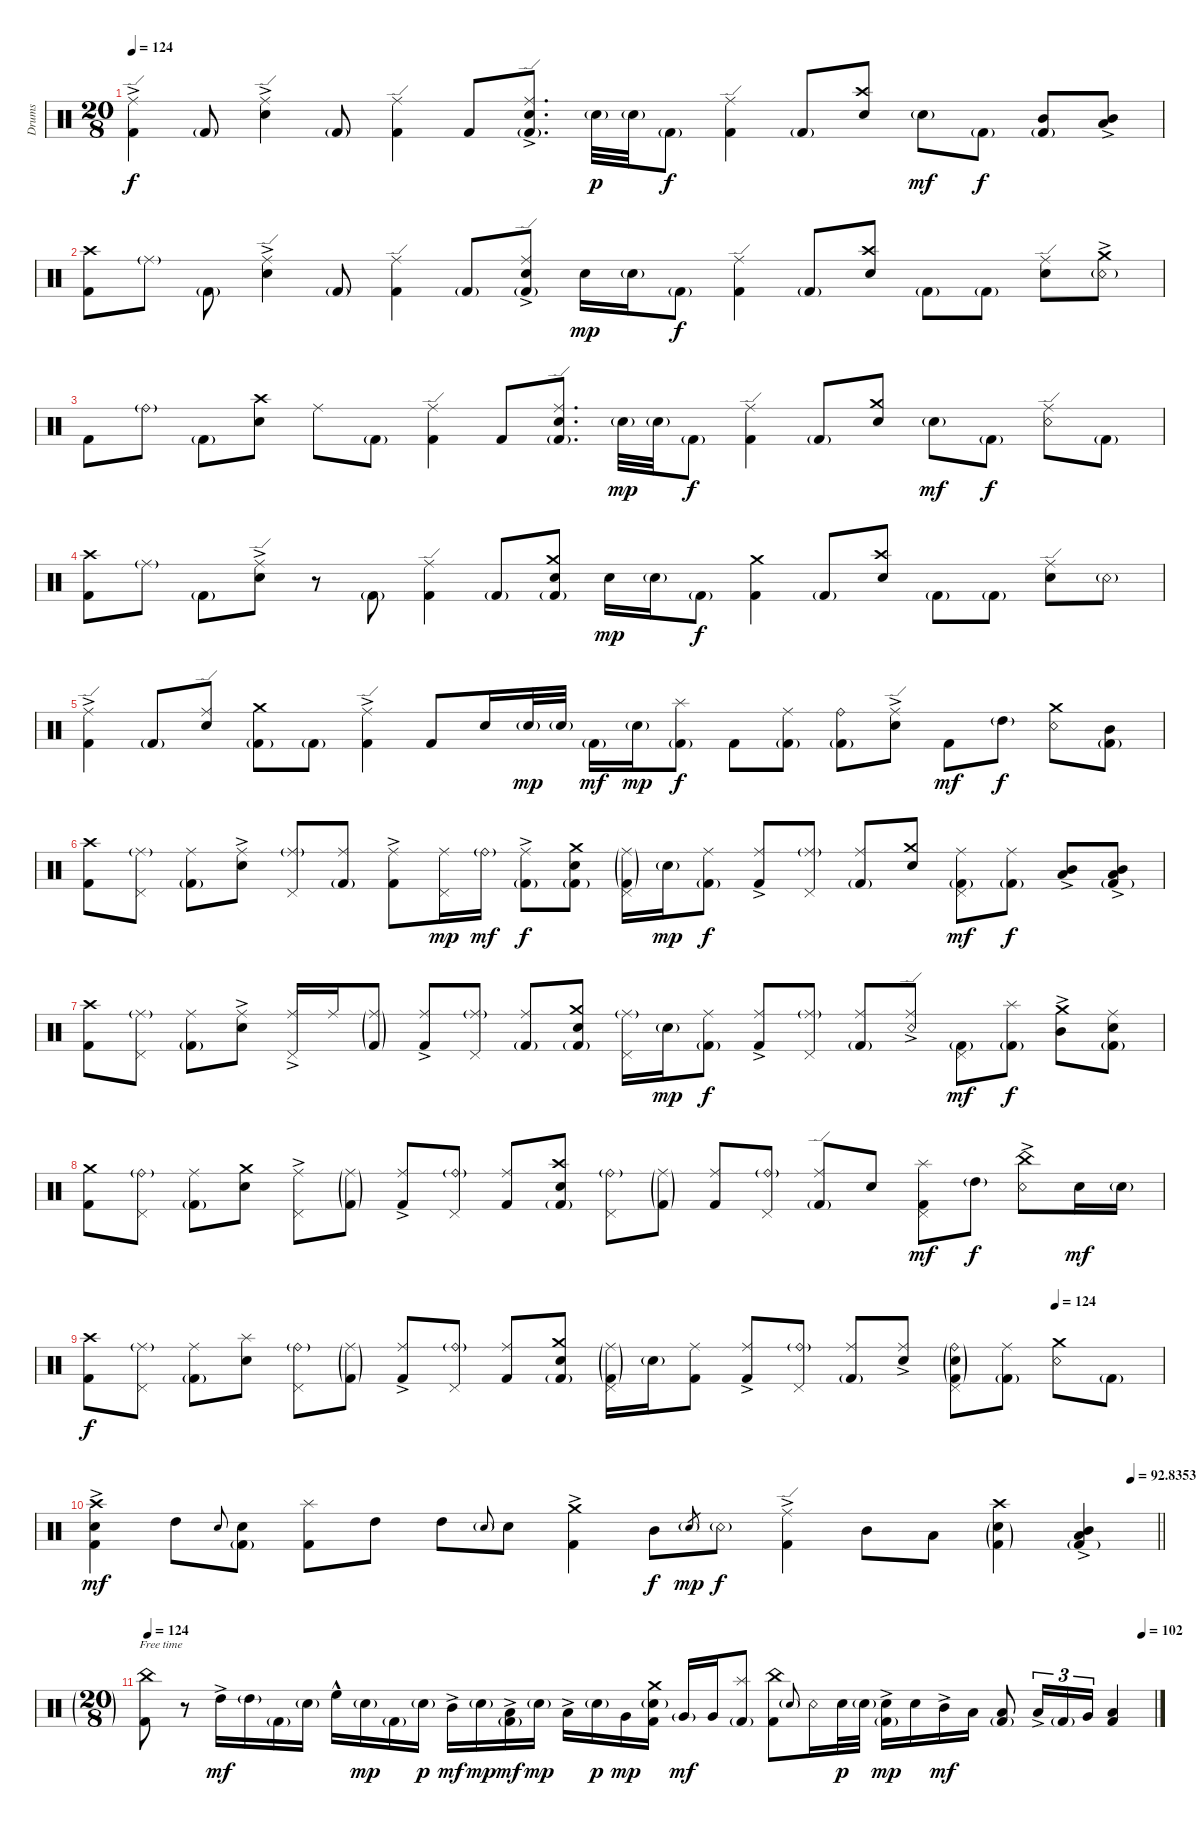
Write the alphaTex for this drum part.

\bracketExtendMode groupsimilarinstruments
\otherSystemsTrackNameOrientation horizontal
\track ("Drumkit" "Drums") {instrument percussion}
\staff {score}
\articulation defaults
\ts (20 8)
\tempo 124
\clef neutral
\ks c
("Kick (hit) 2" "Ride (edge)"{ac}).4{dy f beam Down} "Kick (hit) 2"{g}.8{beam Up} ("Snare (hit) 2" "Ride (edge)"{ac}).4{beam Down} "Kick (hit) 2"{g}.8{beam Up} ("Kick (hit) 2" "Ride (edge)").4{beam Down} "Kick (hit) 2".8{beam Up} ("Snare (hit) 2" "Ride (edge)"{ac} "Kick (hit) 2"{g}).8{d beam Down} "Snare (hit) 2"{g}.32{dy p beam Down} "Snare (hit) 2"{g}.32{beam Down} "Kick (hit) 2"{g}.8{dy f beam Down} ("Kick (hit) 2" "Ride (edge)").4{beam Down} "Kick (hit) 2"{g}.8{beam Up} ("Snare (hit) 2" "Crash high (hit)").8{beam Down} "Snare (hit) 2"{g}.8{dy mf beam Down} "Kick (hit) 2"{g}.8{dy f beam Down} ("Mid Tom (hit)" "Kick (hit) 2"{g}).8{beam Up} ("Mid Tom (hit)" "Low Tom (hit)"{ac}).8{beam Up} |
("Kick (hit) 2" "Crash high (hit)").8{beam Down} "Ride (middle)"{g}.8{beam Down} "Kick (hit) 2"{g}.8{beam Down} ("Snare (hit) 2" "Ride (edge)"{ac}).4{beam Down} "Kick (hit) 2"{g}.8{beam Up} ("Kick (hit) 2" "Ride (edge)").4{beam Down} "Kick (hit) 2"{g}.8{beam Up} ("Snare (hit) 2" "Ride (edge)"{ac} "Kick (hit) 2"{g}).8{beam Down} "Snare (hit) 2".16{dy mp beam Down} "Snare (hit) 2"{g}.16{beam Down} "Kick (hit) 2"{g}.8{dy f beam Down} ("Kick (hit) 2" "Ride (edge)").4{beam Down} "Kick (hit) 2"{g}.8{beam Up} ("Snare (hit) 2" "Crash high (hit)").8{beam Down} "Kick (hit) 2"{g}.8{beam Down} "Kick (hit) 2"{g}.8{beam Down} ("Snare (hit) 2" "Ride (edge)").8{beam Down} ("Snare (rim shot)"{g} "Crash medium (hit)"{ac}).8{beam Down} |
"Kick (hit) 2".8{beam Down} "Ride (bell)"{g}.8{beam Down} "Kick (hit) 2"{g}.8{beam Down} ("Snare (hit) 2" "Crash high (hit)").8{beam Down} "Ride (middle)".8{beam Down} "Kick (hit) 2"{g}.8{beam Down} ("Kick (hit) 2" "Ride (edge)").4{beam Down} "Kick (hit) 2".8{beam Up} ("Snare (hit) 2" "Ride (edge)" "Kick (hit) 2"{g}).8{d beam Down} "Snare (hit) 2"{g}.32{dy mp beam Down} "Snare (hit) 2"{g}.32{beam Down} "Kick (hit) 2"{g}.8{dy f beam Down} ("Kick (hit) 2" "Ride (edge)").4{beam Down} "Kick (hit) 2"{g}.8{beam Up} ("Snare (hit) 2" "Crash medium (hit)").8{beam Down} "Snare (hit) 2"{g}.8{dy mf beam Down} "Kick (hit) 2"{g}.8{dy f beam Down} ("Snare (rim shot)" "Ride (edge)").8{beam Down} "Kick (hit) 2"{g}.8{beam Down} |
("Kick (hit) 2" "Crash high (hit)").8{beam Down} "Ride (middle)"{g}.8{beam Down} "Kick (hit) 2"{g}.8{beam Down} ("Snare (hit) 2" "Ride (edge)"{ac}).8{beam Down} r.8{beam Down} "Kick (hit) 2"{g}.8{beam Down} ("Kick (hit) 2" "Ride (edge)").4{beam Down} "Kick (hit) 2"{g}.8{beam Up} ("Snare (hit) 2" "Crash medium (hit)" "Kick (hit) 2"{g}).8{beam Down} "Snare (hit) 2".16{dy mp beam Down} "Snare (hit) 2"{g}.16{beam Down} "Kick (hit) 2"{g}.8{dy f beam Down} ("Kick (hit) 2" "Crash medium (hit)").4{beam Down} "Kick (hit) 2"{g}.8{beam Up} ("Snare (hit) 2" "Crash high (hit)").8{beam Down} "Kick (hit) 2"{g}.8{beam Down} "Kick (hit) 2"{g}.8{beam Down} ("Snare (hit) 2" "Ride (edge)").8{beam Down} "Snare (rim shot)"{g}.8{beam Down} |
("Kick (hit) 2" "Ride (edge)"{ac}).4{beam Down} "Kick (hit) 2"{g}.8{beam Up} ("Snare (hit) 2" "Ride (edge)").8{beam Down} ("Kick (hit) 2"{g} "Crash medium (hit)").8{beam Down} "Kick (hit) 2"{g}.8{beam Down} ("Kick (hit) 2" "Ride (edge)"{ac}).4{beam Down} "Kick (hit) 2".8{beam Up} "Snare (hit) 2".16{beam Down} "Snare (hit) 2"{g}.32{dy mp beam Down} "Snare (hit) 2"{g}.32{beam Down} "Kick (hit) 2"{g}.16{dy mf beam Down} "Snare (hit) 2"{g}.16{dy mp beam Down} ("Kick (hit) 2"{g} "Splash (hit)").8{dy f beam Down} "Kick (hit) 2".8{beam Down} ("Ride (middle)" "Kick (hit) 2"{g}).8{beam Down} ("Ride (bell)" "Kick (hit) 2"{g}).8{beam Down} ("Ride (edge)"{ac} "Snare (hit) 2").8{beam Down} "Kick (hit) 2".8{dy mf beam Down} "High Tom (hit)"{g}.8{dy f beam Down} ("Snare (rim shot)" "Crash medium (hit)").8{beam Down} ("Kick (hit) 2"{g} "Mid Tom (hit)").8{beam Down} |
("Kick (hit) 2" "Crash high (hit)").8{beam Down} ("Ride (middle)"{g} "Pedal Hi-Hat (hit)").8{beam Down} ("Ride (middle)" "Kick (hit) 2"{g}).8{beam Down} ("Ride (middle)"{ac} "Snare (hit) 2").8{beam Up} ("Ride (middle)"{g} "Pedal Hi-Hat (hit)").8{beam Up} ("Ride (middle)" "Kick (hit) 2"{g}).8{beam Up} ("Ride (middle)"{ac} "Kick (hit) 2").8{beam Down} ("Ride (middle)" "Pedal Hi-Hat (hit)").16{dy mp beam Down} "Ride (bell)"{g}.16{dy mf beam Down} ("Ride (middle)"{ac} "Kick (hit) 2"{g}).8{dy f beam Down} ("Snare (hit) 2" "Crash medium (hit)" "Kick (hit) 2"{g}).8{beam Down} ("Ride (middle)"{g} "Kick (hit) 2"{g} "Pedal Hi-Hat (hit)").16{beam Down} "Snare (hit) 2"{g}.16{dy mp beam Down} ("Ride (middle)" "Kick (hit) 2"{g}).8{dy f beam Down} ("Kick (hit) 2" "Ride (middle)"{ac}).8{beam Up} ("Ride (middle)"{g} "Pedal Hi-Hat (hit)").8{beam Up} ("Ride (middle)" "Kick (hit) 2"{g}).8{beam Up} ("Snare (hit) 2" "Crash medium (hit)").8{beam Down} ("Ride (middle)" "Kick (hit) 2"{g} "Pedal Hi-Hat (hit)").8{dy mf beam Down} ("Ride (middle)" "Kick (hit) 2"{g}).8{dy f beam Down} ("Mid Tom (hit)"{ac} "Low Tom (hit)"{ac}).8{beam Up} ("Mid Tom (hit)" "Low Tom (hit)"{ac} "Kick (hit) 2"{g}).8{beam Up} |
("Kick (hit) 2" "Crash high (hit)").8{beam Down} ("Ride (middle)"{g} "Pedal Hi-Hat (hit)").8{beam Down} ("Ride (middle)" "Kick (hit) 2"{g}).8{beam Down} ("Ride (middle)"{ac} "Snare (hit) 2").8{beam Up} ("Ride (middle)"{ac} "Pedal Hi-Hat (hit)").16{beam Up} "Ride (middle)".16{beam Up} ("Ride (middle)"{g} "Kick (hit) 2"{g}).8{beam Up} ("Ride (middle)"{ac} "Kick (hit) 2").8{beam Up} ("Ride (middle)"{g} "Pedal Hi-Hat (hit)").8{beam Up} ("Ride (middle)" "Kick (hit) 2"{g}).8{beam Up} ("Snare (hit) 2" "Crash medium (hit)" "Kick (hit) 2"{g}).8{beam Down} ("Ride (middle)"{g} "Pedal Hi-Hat (hit)").16{beam Down} "Snare (hit) 2"{g}.16{dy mp beam Down} ("Ride (middle)" "Kick (hit) 2"{g}).8{dy f beam Down} ("Kick (hit) 2" "Ride (middle)"{ac}).8{beam Up} ("Ride (middle)"{g} "Pedal Hi-Hat (hit)").8{beam Up} ("Ride (middle)" "Kick (hit) 2"{g}).8{beam Up} ("Ride (edge)"{ac} "Snare (rim shot)").8{beam Down} ("Kick (hit) 2"{g} "Pedal Hi-Hat (hit)").8{dy mf beam Down} ("Kick (hit) 2"{g} "Splash (hit)").8{dy f beam Down} ("Mid Tom (hit)"{ac} "Crash medium (hit)").8{beam Down} ("Kick (hit) 2"{g} "Snare (hit) 2" "Ride (middle)").8{beam Down} |
("Kick (hit) 2" "Crash medium (hit)").8{beam Down} ("Ride (bell)"{g} "Pedal Hi-Hat (hit)").8{beam Down} ("Ride (middle)" "Kick (hit) 2"{g}).8{beam Down} ("Snare (hit) 2" "Crash medium (hit)").8{beam Down} ("Ride (middle)"{ac} "Pedal Hi-Hat (hit)").8{beam Down} ("Ride (middle)"{g} "Kick (hit) 2"{g}).8{beam Down} ("Ride (middle)"{ac} "Kick (hit) 2").8{beam Up} ("Ride (bell)"{g} "Pedal Hi-Hat (hit)").8{beam Up} ("Ride (middle)" "Kick (hit) 2").8{beam Up} ("Snare (hit) 2" "Kick (hit) 2"{g} "Crash high (hit)").8{beam Down} ("Ride (bell)"{g} "Pedal Hi-Hat (hit)").8{beam Down} ("Ride (middle)"{g} "Kick (hit) 2"{g}).8{beam Down} ("Ride (middle)" "Kick (hit) 2").8{beam Up} ("Ride (bell)"{g} "Pedal Hi-Hat (hit)").8{beam Up} ("Kick (hit) 2"{g} "Ride (edge)").8{beam Up} "Snare (hit) 2".8{beam Down} ("Kick (hit) 2" "Splash (hit)" "Pedal Hi-Hat (hit)").8{dy mf beam Down} "High Tom (hit)"{g}.8{dy f beam Down} ("Snare (rim shot)" "China (hit)"{ac}).8{beam Down} "Snare (hit) 2".16{dy mf beam Down} "Snare (hit) 2"{g}.16{beam Down} |
\tempo (124 0.9)
("Kick (hit) 2" "Crash high (hit)").8{dy f beam Down} ("Ride (middle)"{g} "Pedal Hi-Hat (hit)").8{beam Down} ("Ride (middle)" "Kick (hit) 2"{g}).8{beam Down} ("Snare (hit) 2" "Splash (hit)").8{beam Down} ("Ride (bell)"{g} "Pedal Hi-Hat (hit)").8{beam Down} ("Ride (middle)"{g} "Kick (hit) 2"{g}).8{beam Down} ("Ride (middle)"{ac} "Kick (hit) 2").8{beam Up} ("Ride (bell)"{g} "Pedal Hi-Hat (hit)").8{beam Up} ("Ride (middle)" "Kick (hit) 2").8{beam Up} ("Snare (hit) 2" "Crash medium (hit)" "Kick (hit) 2"{g}).8{beam Down} ("Kick (hit) 2"{g} "Pedal Hi-Hat (hit)" "Ride (middle)"{g}).16{beam Down} "Snare (hit) 2"{g}.16{beam Down} ("Ride (middle)" "Kick (hit) 2").8{beam Down} ("Kick (hit) 2" "Ride (middle)"{ac}).8{beam Up} ("Ride (bell)"{g} "Pedal Hi-Hat (hit)").8{beam Up} ("Ride (middle)" "Kick (hit) 2"{g}).8{beam Up} ("Ride (middle)"{ac} "Snare (hit) 2").8{beam Down} ("Ride (bell)"{g} "Snare (hit) 2"{g} "Kick (hit) 2"{g} "Pedal Hi-Hat (hit)").8{beam Down} ("Ride (middle)" "Kick (hit) 2"{g}).8{beam Down} ("Snare (rim shot)" "Crash medium (hit)").8{beam Down} "Kick (hit) 2"{g}.8{beam Down} |
\tempo (92.8353 0.975)
\barLineRight lightlight
("Kick (hit) 2" "Crash high (hit)"{ac} "Snare (hit) 2").4{dy mf beam Down} "High Tom (hit)".8{beam Down} "Snare (hit) 2".8{gr onbeat beam Up} ("Snare (hit) 2" "Kick (hit) 2"{g}).8{beam Down} ("Kick (hit) 2" "Splash (hit)").8{beam Down} "High Tom (hit)".8{beam Down} "High Tom (hit)".8{beam Down} "Snare (hit) 2"{g}.8{gr onbeat beam Up} "Snare (hit) 2".8{beam Down} ("Kick (hit) 2" "Crash medium (hit)"{ac}).4{beam Down} "Mid Tom (hit)".8{dy f beam Down} "Snare (hit) 2"{g}.8{gr dy mp beam Up} "Snare (rim shot)"{g}.8{dy f beam Down} ("Kick (hit) 2" "Ride (edge)"{ac}).4{beam Down} "Mid Tom (hit)".8{beam Down} "Low Tom (hit)".8{beam Up} ("Kick (hit) 2"{g} "Snare (hit) 2"{g} "Crash high (hit)").4{beam Down} ("Mid Tom (hit)" "Low Tom (hit)"{ac} "Kick (hit) 2"{g}).4{beam Up} |
\ft
\tempo 124
\tempo (102 0.9875)
("Kick (hit) 2" "China (hit)").8{beam Down} r.8{beam Down} "High Tom (hit)"{ac}.16{dy mf beam Down} "High Tom (hit)"{g}.16{beam Down} "Kick (hit) 2"{g}.16{beam Down} "Snare (hit) 2"{g}.16{beam Down} "High Floor Tom (hit)"{hac}.16{beam Down} "Snare (hit) 2"{g}.16{dy mp beam Down} "Kick (hit) 2"{g}.16{beam Down} "Snare (hit) 2"{g}.16{dy p beam Down} "Mid Tom (hit)"{ac}.16{dy mf beam Down} "Snare (hit) 2"{g}.16{dy mp beam Down} ("Low Tom (hit)"{ac} "Kick (hit) 2"{g}).16{dy mf beam Down} "Snare (hit) 2"{g}.16{dy mp beam Down} "Low Tom (hit)"{ac}.16{beam Down} "Snare (hit) 2"{g}.16{dy p beam Down} "Very Low Tom (hit)".16{dy mp beam Up} ("Snare (hit) 2"{g} "Crash medium (hit)" "Kick (hit) 2").16{beam Up} "Very Low Tom (hit)"{g}.16{dy mf beam Up} "Very Low Tom (hit)".16{beam Up} ("Kick (hit) 2"{g} "Splash (hit)").8{beam Up} ("Kick (hit) 2" "China (hit)").8{beam Down} "Snare (hit) 2"{g}.8{gr onbeat beam Up} "Snare (rim shot)".16{beam Down} "Snare (hit) 2".32{dy p beam Down} "Snare (hit) 2"{g}.32{beam Down} ("Snare (hit) 2"{ac} "Kick (hit) 2"{g}).16{dy mp beam Down} "Snare (hit) 2".16{beam Down} "Mid Tom (hit)"{ac}.16{dy mf beam Up} "Low Tom (hit)".16{beam Up} ("Low Tom (hit)" "Kick (hit) 2"{g}).8{beam Up} "Low Tom (hit)"{ac}.16{tu (3 2) beam Up} "Kick (hit) 2"{g}.16{tu (3 2) beam Up} "Very Low Tom (hit)".16{tu (3 2) beam Up} ("Kick (hit) 2" "Low Tom (hit)").4{beam Up}
